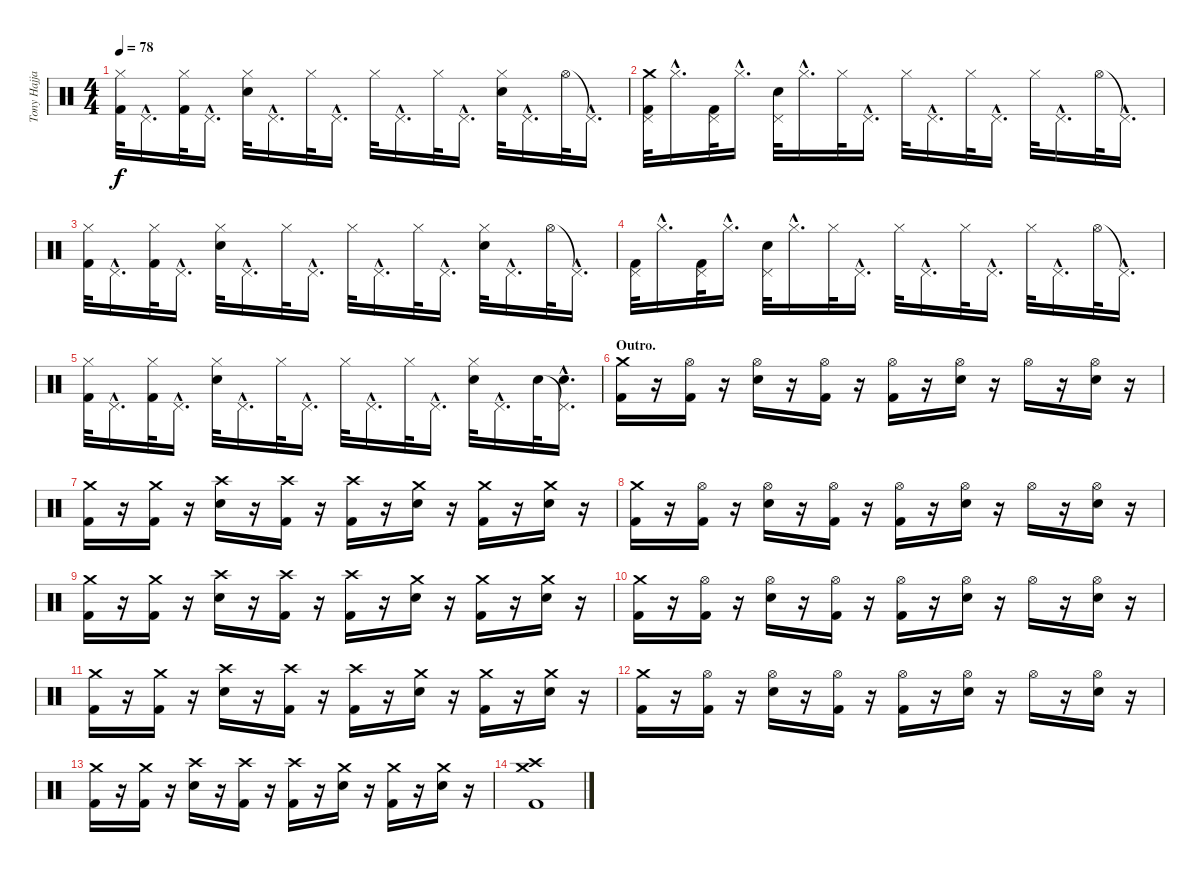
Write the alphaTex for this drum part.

\track ("Tony Hajjar" "Tony Hajja") {instrument percussion}
\staff {score}
\articulation defaults
\ts (4 4)
\tempo 78
\clef neutral
\ks c
("Hi-Hat (closed)" "Kick (hit) 2").32{dy f} "Pedal Hi-Hat (hit)"{hac}.16{d} ("Hi-Hat (closed)" "Kick (hit) 2").32 "Pedal Hi-Hat (hit)"{hac}.16{d} ("Hi-Hat (closed)" "Electric Snare (hit)").32 "Pedal Hi-Hat (hit)"{hac}.16{d} "Hi-Hat (closed)".32 "Pedal Hi-Hat (hit)"{hac}.16{d} "Hi-Hat (closed)".32 "Pedal Hi-Hat (hit)"{hac}.16{d} "Hi-Hat (closed)".32 "Pedal Hi-Hat (hit)"{hac}.16{d} ("Hi-Hat (closed)" "Electric Snare (hit)").32 "Pedal Hi-Hat (hit)"{hac}.16{d} "Hi-Hat (open)".32 "Pedal Hi-Hat (hit)"{hac t}.16{d} |
("Crash medium (hit)" "Pedal Hi-Hat (hit)" "Kick (hit) 2").32 "Hi-Hat (closed)"{hac}.16{d} ("Pedal Hi-Hat (hit)" "Kick (hit) 2").32 "Hi-Hat (closed)"{hac}.16{d} ("Pedal Hi-Hat (hit)" "Electric Snare (hit)").32 "Hi-Hat (closed)"{hac}.16{d} "Hi-Hat (closed)".32 "Pedal Hi-Hat (hit)"{hac}.16{d} "Hi-Hat (closed)".32 "Pedal Hi-Hat (hit)"{hac}.16{d} "Hi-Hat (closed)".32 "Pedal Hi-Hat (hit)"{hac}.16{d} "Hi-Hat (closed)".32 "Pedal Hi-Hat (hit)"{hac}.16{d} "Hi-Hat (open)".32 "Pedal Hi-Hat (hit)"{hac t}.16{d} |
("Hi-Hat (closed)" "Kick (hit) 2").32 "Pedal Hi-Hat (hit)"{hac}.16{d} ("Hi-Hat (closed)" "Kick (hit) 2").32 "Pedal Hi-Hat (hit)"{hac}.16{d} ("Hi-Hat (closed)" "Electric Snare (hit)").32 "Pedal Hi-Hat (hit)"{hac}.16{d} "Hi-Hat (closed)".32 "Pedal Hi-Hat (hit)"{hac}.16{d} "Hi-Hat (closed)".32 "Pedal Hi-Hat (hit)"{hac}.16{d} "Hi-Hat (closed)".32 "Pedal Hi-Hat (hit)"{hac}.16{d} ("Hi-Hat (closed)" "Electric Snare (hit)").32 "Pedal Hi-Hat (hit)"{hac}.16{d} "Hi-Hat (open)".32 "Pedal Hi-Hat (hit)"{hac t}.16{d} |
("Pedal Hi-Hat (hit)" "Kick (hit) 2").32 "Hi-Hat (closed)"{hac}.16{d} ("Pedal Hi-Hat (hit)" "Kick (hit) 2").32 "Hi-Hat (closed)"{hac}.16{d} ("Pedal Hi-Hat (hit)" "Electric Snare (hit)").32 "Hi-Hat (closed)"{hac}.16{d} "Hi-Hat (closed)".32 "Pedal Hi-Hat (hit)"{hac}.16{d} "Hi-Hat (closed)".32 "Pedal Hi-Hat (hit)"{hac}.16{d} "Hi-Hat (closed)".32 "Pedal Hi-Hat (hit)"{hac}.16{d} "Hi-Hat (closed)".32 "Pedal Hi-Hat (hit)"{hac}.16{d} "Hi-Hat (open)".32 "Pedal Hi-Hat (hit)"{hac t}.16{d} |
("Hi-Hat (closed)" "Kick (hit) 2").32 "Pedal Hi-Hat (hit)"{hac}.16{d} ("Hi-Hat (closed)" "Kick (hit) 2").32 "Pedal Hi-Hat (hit)"{hac}.16{d} ("Hi-Hat (closed)" "Electric Snare (hit)").32 "Pedal Hi-Hat (hit)"{hac}.16{d} "Hi-Hat (closed)".32 "Pedal Hi-Hat (hit)"{hac}.16{d} "Hi-Hat (closed)".32 "Pedal Hi-Hat (hit)"{hac}.16{d} "Hi-Hat (closed)".32 "Pedal Hi-Hat (hit)"{hac}.16{d} ("Hi-Hat (closed)" "Electric Snare (hit)").32 "Pedal Hi-Hat (hit)"{hac}.16{d} "Electric Snare (hit)".32 ("Pedal Hi-Hat (hit)"{hac t} "Electric Snare (hit)"{hac}).16{d} |
\section ("" "Outro.")
("Crash medium (hit)" "Kick (hit) 2").16 r.16 ("Hi-Hat (open)" "Kick (hit) 2").16 r.16 ("Hi-Hat (open)" "Electric Snare (hit)").16 r.16 ("Hi-Hat (open)" "Kick (hit) 2").16 r.16 ("Hi-Hat (open)" "Kick (hit) 2").16 r.16 ("Hi-Hat (open)" "Electric Snare (hit)").16 r.16 "Hi-Hat (open)".16 r.16 ("Hi-Hat (open)" "Electric Snare (hit)").16 r.16 |
("Crash medium (hit)" "Kick (hit) 2").16 r.16 ("Crash medium (hit)" "Kick (hit) 2").16 r.16 ("Crash high (hit)" "Electric Snare (hit)").16 r.16 ("Crash high (hit)" "Kick (hit) 2").16 r.16 ("Crash high (hit)" "Kick (hit) 2").16 r.16 ("Crash medium (hit)" "Electric Snare (hit)").16 r.16 ("Crash medium (hit)" "Kick (hit) 2").16 r.16 ("Crash medium (hit)" "Electric Snare (hit)").16 r.16 |
("Crash medium (hit)" "Kick (hit) 2").16 r.16 ("Hi-Hat (open)" "Kick (hit) 2").16 r.16 ("Hi-Hat (open)" "Electric Snare (hit)").16 r.16 ("Hi-Hat (open)" "Kick (hit) 2").16 r.16 ("Hi-Hat (open)" "Kick (hit) 2").16 r.16 ("Hi-Hat (open)" "Electric Snare (hit)").16 r.16 "Hi-Hat (open)".16 r.16 ("Hi-Hat (open)" "Electric Snare (hit)").16 r.16 |
("Crash medium (hit)" "Kick (hit) 2").16 r.16 ("Crash medium (hit)" "Kick (hit) 2").16 r.16 ("Crash high (hit)" "Electric Snare (hit)").16 r.16 ("Crash high (hit)" "Kick (hit) 2").16 r.16 ("Crash high (hit)" "Kick (hit) 2").16 r.16 ("Crash medium (hit)" "Electric Snare (hit)").16 r.16 ("Crash medium (hit)" "Kick (hit) 2").16 r.16 ("Crash medium (hit)" "Electric Snare (hit)").16 r.16 |
("Crash medium (hit)" "Kick (hit) 2").16 r.16 ("Hi-Hat (open)" "Kick (hit) 2").16 r.16 ("Hi-Hat (open)" "Electric Snare (hit)").16 r.16 ("Hi-Hat (open)" "Kick (hit) 2").16 r.16 ("Hi-Hat (open)" "Kick (hit) 2").16 r.16 ("Hi-Hat (open)" "Electric Snare (hit)").16 r.16 "Hi-Hat (open)".16 r.16 ("Hi-Hat (open)" "Electric Snare (hit)").16 r.16 |
("Crash medium (hit)" "Kick (hit) 2").16 r.16 ("Crash medium (hit)" "Kick (hit) 2").16 r.16 ("Crash high (hit)" "Electric Snare (hit)").16 r.16 ("Crash high (hit)" "Kick (hit) 2").16 r.16 ("Crash high (hit)" "Kick (hit) 2").16 r.16 ("Crash medium (hit)" "Electric Snare (hit)").16 r.16 ("Crash medium (hit)" "Kick (hit) 2").16 r.16 ("Crash medium (hit)" "Electric Snare (hit)").16 r.16 |
("Crash medium (hit)" "Kick (hit) 2").16 r.16 ("Hi-Hat (open)" "Kick (hit) 2").16 r.16 ("Hi-Hat (open)" "Electric Snare (hit)").16 r.16 ("Hi-Hat (open)" "Kick (hit) 2").16 r.16 ("Hi-Hat (open)" "Kick (hit) 2").16 r.16 ("Hi-Hat (open)" "Electric Snare (hit)").16 r.16 "Hi-Hat (open)".16 r.16 ("Hi-Hat (open)" "Electric Snare (hit)").16 r.16 |
("Crash medium (hit)" "Kick (hit) 2").16 r.16 ("Crash medium (hit)" "Kick (hit) 2").16 r.16 ("Crash high (hit)" "Electric Snare (hit)").16 r.16 ("Crash high (hit)" "Kick (hit) 2").16 r.16 ("Crash high (hit)" "Kick (hit) 2").16 r.16 ("Crash medium (hit)" "Electric Snare (hit)").16 r.16 ("Crash medium (hit)" "Kick (hit) 2").16 r.16 ("Crash medium (hit)" "Electric Snare (hit)").16 r.16 |
("Crash medium (hit)" "Crash high (hit)" "Kick (hit) 2").1
